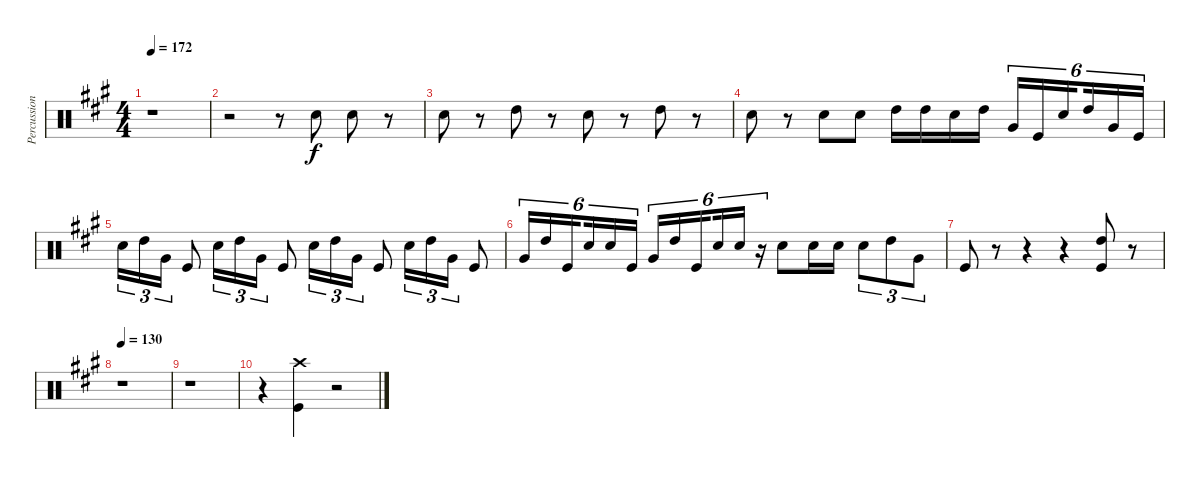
\track ("Percussion" "Percussion") {instrument percussion}
\staff {score}
\articulation defaults
\ts (4 4)
\tempo 172
\clef neutral
\ks a
r.1{dy f} |
r.2 r.8 "Snare (hit) 2".8 "Snare (hit) 2".8 r.8 |
"Snare (hit) 2".8 r.8 "High Tom (hit)".8 r.8 "Snare (hit) 2".8 r.8 "High Tom (hit)".8 r.8 |
"Snare (hit) 2".8 r.8 "Snare (hit) 2".8 "Snare (hit) 2".8 "High Tom (hit)".16 "High Tom (hit)".16 "Snare (hit) 2".16 "High Tom (hit)".16 "Very Low Tom (hit)".16{tu (6 4)} "Kick (hit)".16{tu (6 4)} "Snare (hit) 2".16{tu (6 4) beam splitsecondary} "High Tom (hit)".16{tu (6 4)} "Very Low Tom (hit)".16{tu (6 4)} "Kick (hit)".16{tu (6 4)} |
"Snare (hit) 2".16{tu (3 2)} "High Tom (hit)".16{tu (3 2)} "Very Low Tom (hit)".16{tu (3 2)} "Kick (hit)".8 "Snare (hit) 2".16{tu (3 2)} "High Tom (hit)".16{tu (3 2)} "Very Low Tom (hit)".16{tu (3 2)} "Kick (hit)".8 "Snare (hit) 2".16{tu (3 2)} "High Tom (hit)".16{tu (3 2)} "Very Low Tom (hit)".16{tu (3 2)} "Kick (hit)".8 "Snare (hit) 2".16{tu (3 2)} "High Tom (hit)".16{tu (3 2)} "Very Low Tom (hit)".16{tu (3 2)} "Kick (hit)".8 |
"Very Low Tom (hit)".16{tu (6 4)} "High Tom (hit)".16{tu (6 4)} "Kick (hit)".16{tu (6 4) beam splitsecondary} "Snare (hit) 2".16{tu (6 4)} "Snare (hit) 2".16{tu (6 4)} "Kick (hit)".16{tu (6 4)} "Very Low Tom (hit)".16{tu (6 4)} "High Tom (hit)".16{tu (6 4)} "Kick (hit)".16{tu (6 4) beam splitsecondary} "Snare (hit) 2".16{tu (6 4)} "Snare (hit) 2".16{tu (6 4)} r.16{tu (6 4)} "Snare (hit) 2".8 "Snare (hit) 2".16 "Snare (hit) 2".16 "Snare (hit) 2".8{tu (3 2)} "High Tom (hit)".8{tu (3 2)} "Very Low Tom (hit)".8{tu (3 2)} |
"Kick (hit)".8 r.8 r.4 r.4 ("High Tom (hit)" "Kick (hit)").8 r.8 |
\tempo 130
r.1 |
r.1 |
r.4 ("Crash high (hit)" "Kick (hit)").4 r.2
